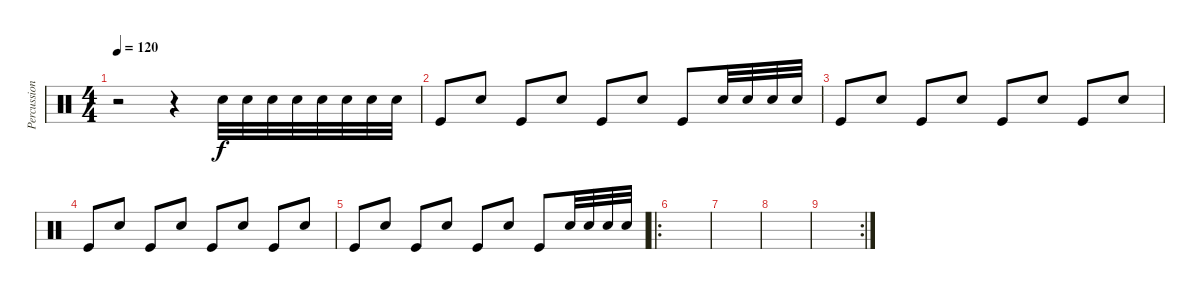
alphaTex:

\track ("Percussion" "Percussion") {instrument percussion}
\staff {score}
\articulation defaults
\ts (4 4)
\tempo 120
\clef neutral
\ks c
r.2{dy f} r.4 "Snare (hit) 2".32 "Snare (hit) 2".32 "Snare (hit) 2".32 "Snare (hit) 2".32 "Snare (hit) 2".32 "Snare (hit) 2".32 "Snare (hit) 2".32 "Snare (hit) 2".32 |
"Kick (hit)".8 "Snare (hit) 2".8 "Kick (hit)".8 "Snare (hit) 2".8 "Kick (hit)".8 "Snare (hit) 2".8 "Kick (hit)".8 "Snare (hit) 2".32 "Snare (hit) 2".32 "Snare (hit) 2".32 "Snare (hit) 2".32 |
"Kick (hit)".8 "Snare (hit) 2".8 "Kick (hit)".8 "Snare (hit) 2".8 "Kick (hit)".8 "Snare (hit) 2".8 "Kick (hit)".8 "Snare (hit) 2".8 |
"Kick (hit)".8 "Snare (hit) 2".8 "Kick (hit)".8 "Snare (hit) 2".8 "Kick (hit)".8 "Snare (hit) 2".8 "Kick (hit)".8 "Snare (hit) 2".8 |
"Kick (hit)".8 "Snare (hit) 2".8 "Kick (hit)".8 "Snare (hit) 2".8 "Kick (hit)".8 "Snare (hit) 2".8 "Kick (hit)".8 "Snare (hit) 2".32 "Snare (hit) 2".32 "Snare (hit) 2".32 "Snare (hit) 2".32 |
\ro
|
|
|
\rc 2
